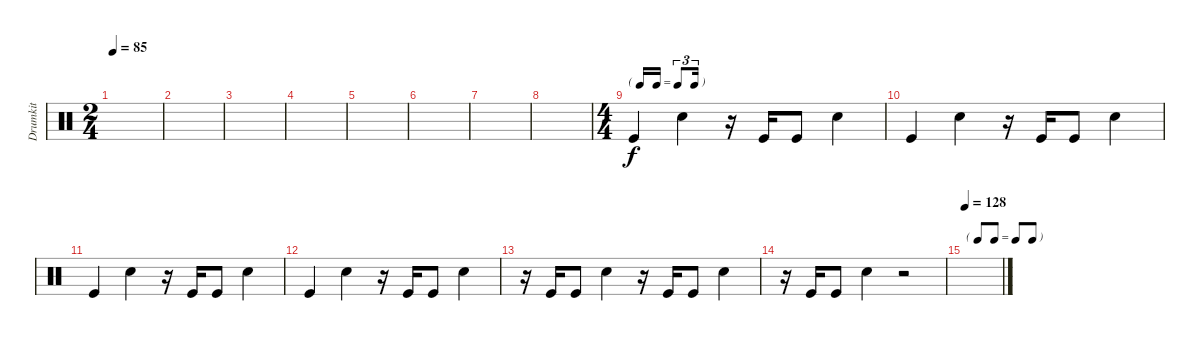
\track ("Drumkit" "Drumkit") {instrument percussion}
\staff {score}
\articulation defaults
\ts (2 4)
\tempo 85
\clef neutral
\ks c
|
|
|
|
|
|
|
|
\ts (4 4)
\tf triplet16th "Kick (hit)".4 "Snare (hit) 2".4
r.16 "Kick (hit)".16 "Kick (hit)".8 "Snare (hit) 2".4 |
"Kick (hit)".4 "Snare (hit) 2".4 r.16 "Kick (hit)".16 "Kick (hit)".8 "Snare (hit) 2".4 |
"Kick (hit)".4 "Snare (hit) 2".4 r.16 "Kick (hit)".16 "Kick (hit)".8 "Snare (hit) 2".4 |
"Kick (hit)".4 "Snare (hit) 2".4 r.16 "Kick (hit)".16 "Kick (hit)".8 "Snare (hit) 2".4 |
r.16 "Kick (hit)".16 "Kick (hit)".8 "Snare (hit) 2".4 r.16 "Kick (hit)".16 "Kick (hit)".8 "Snare (hit) 2".4 |
r.16 "Kick (hit)".16 "Kick (hit)".8 "Snare (hit) 2".4 r.2 |
\tf none
\tempo 128
